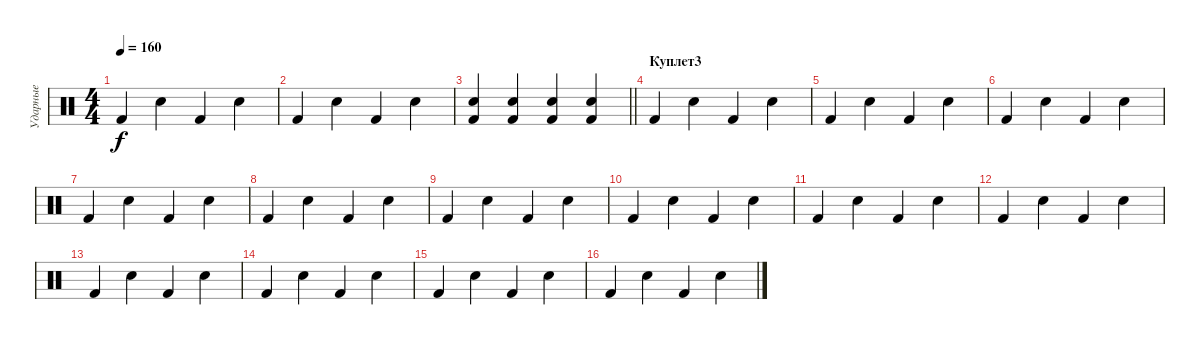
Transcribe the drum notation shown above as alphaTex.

\track ("Ударные" "Ударные") {instrument percussion}
\staff {score}
\articulation defaults
\ts (4 4)
\tempo 160
\clef neutral
\ks c "Kick (hit) 2".4{dy f} "Electric Snare (hit)".4 "Kick (hit) 2".4 "Electric Snare (hit)".4
|
"Kick (hit) 2".4 "Electric Snare (hit)".4 "Kick (hit) 2".4 "Electric Snare (hit)".4 |
\barLineRight lightlight
("Kick (hit) 2" "Snare (hit) 2").4 ("Kick (hit) 2" "Snare (hit) 2").4 ("Kick (hit) 2" "Snare (hit) 2").4 ("Kick (hit) 2" "Snare (hit) 2").4 |
\section ("" "Куплет3")
"Kick (hit) 2".4 "Electric Snare (hit)".4 "Kick (hit) 2".4 "Electric Snare (hit)".4 |
"Kick (hit) 2".4 "Electric Snare (hit)".4 "Kick (hit) 2".4 "Electric Snare (hit)".4 |
"Kick (hit) 2".4 "Electric Snare (hit)".4 "Kick (hit) 2".4 "Electric Snare (hit)".4 |
"Kick (hit) 2".4 "Electric Snare (hit)".4 "Kick (hit) 2".4 "Electric Snare (hit)".4 |
"Kick (hit) 2".4 "Electric Snare (hit)".4 "Kick (hit) 2".4 "Electric Snare (hit)".4 |
"Kick (hit) 2".4 "Electric Snare (hit)".4 "Kick (hit) 2".4 "Electric Snare (hit)".4 |
"Kick (hit) 2".4 "Electric Snare (hit)".4 "Kick (hit) 2".4 "Electric Snare (hit)".4 |
"Kick (hit) 2".4 "Electric Snare (hit)".4 "Kick (hit) 2".4 "Electric Snare (hit)".4 |
"Kick (hit) 2".4 "Electric Snare (hit)".4 "Kick (hit) 2".4 "Electric Snare (hit)".4 |
"Kick (hit) 2".4 "Electric Snare (hit)".4 "Kick (hit) 2".4 "Electric Snare (hit)".4 |
"Kick (hit) 2".4 "Electric Snare (hit)".4 "Kick (hit) 2".4 "Electric Snare (hit)".4 |
"Kick (hit) 2".4 "Electric Snare (hit)".4 "Kick (hit) 2".4 "Electric Snare (hit)".4 |
"Kick (hit) 2".4 "Electric Snare (hit)".4 "Kick (hit) 2".4 "Electric Snare (hit)".4
